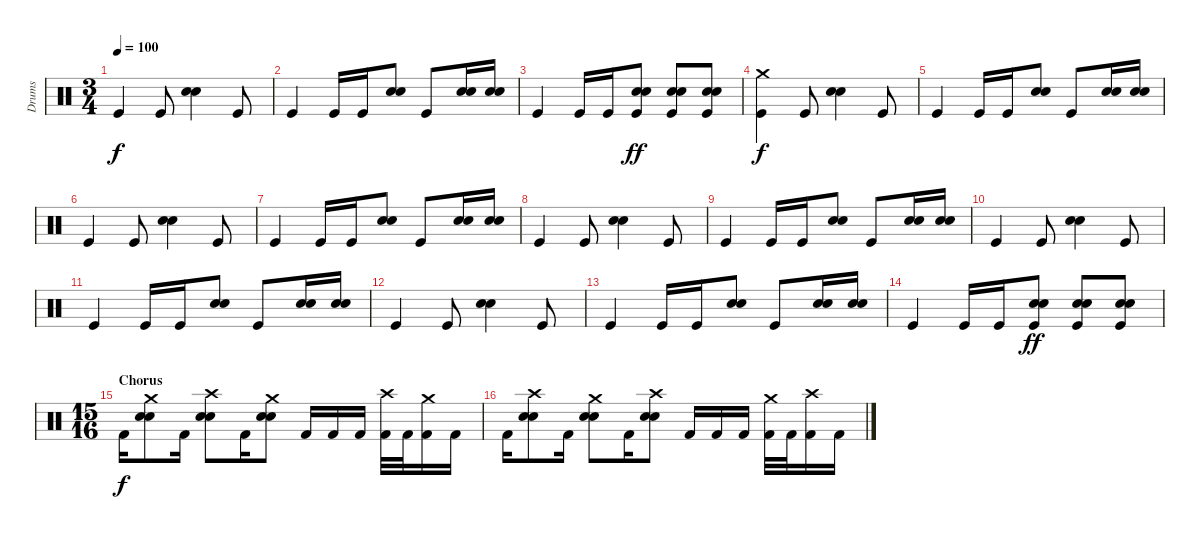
\track ("Drums" "Drums") {instrument percussion}
\staff {score}
\articulation defaults
\ts (3 4)
\tempo 100
\clef neutral
\ks c "Kick (hit)".4{dy f} "Kick (hit)".8
("Snare (hit) 2" "Electric Snare (hit)").4 "Kick (hit)".8 |
"Kick (hit)".4 "Kick (hit)".16 "Kick (hit)".16 ("Snare (hit) 2" "Electric Snare (hit)").8 "Kick (hit)".8 ("Snare (hit) 2" "Electric Snare (hit)").16 ("Snare (hit) 2" "Electric Snare (hit)").16 |
"Kick (hit)".4 "Kick (hit)".16 "Kick (hit)".16 ("Snare (hit) 2" "Electric Snare (hit)" "Kick (hit)").8{dy ff} ("Snare (hit) 2" "Electric Snare (hit)" "Kick (hit)").8 ("Snare (hit) 2" "Electric Snare (hit)" "Kick (hit)").8 |
("Crash medium (hit)" "Kick (hit)").4{dy f} "Kick (hit)".8 ("Snare (hit) 2" "Electric Snare (hit)").4 "Kick (hit)".8 |
"Kick (hit)".4 "Kick (hit)".16 "Kick (hit)".16 ("Snare (hit) 2" "Electric Snare (hit)").8 "Kick (hit)".8 ("Snare (hit) 2" "Electric Snare (hit)").16 ("Snare (hit) 2" "Electric Snare (hit)").16 |
"Kick (hit)".4 "Kick (hit)".8 ("Snare (hit) 2" "Electric Snare (hit)").4 "Kick (hit)".8 |
"Kick (hit)".4 "Kick (hit)".16 "Kick (hit)".16 ("Snare (hit) 2" "Electric Snare (hit)").8 "Kick (hit)".8 ("Snare (hit) 2" "Electric Snare (hit)").16 ("Snare (hit) 2" "Electric Snare (hit)").16 |
"Kick (hit)".4 "Kick (hit)".8 ("Snare (hit) 2" "Electric Snare (hit)").4 "Kick (hit)".8 |
"Kick (hit)".4 "Kick (hit)".16 "Kick (hit)".16 ("Snare (hit) 2" "Electric Snare (hit)").8 "Kick (hit)".8 ("Snare (hit) 2" "Electric Snare (hit)").16 ("Snare (hit) 2" "Electric Snare (hit)").16 |
"Kick (hit)".4 "Kick (hit)".8 ("Snare (hit) 2" "Electric Snare (hit)").4 "Kick (hit)".8 |
"Kick (hit)".4 "Kick (hit)".16 "Kick (hit)".16 ("Snare (hit) 2" "Electric Snare (hit)").8 "Kick (hit)".8 ("Snare (hit) 2" "Electric Snare (hit)").16 ("Snare (hit) 2" "Electric Snare (hit)").16 |
"Kick (hit)".4 "Kick (hit)".8 ("Snare (hit) 2" "Electric Snare (hit)").4 "Kick (hit)".8 |
"Kick (hit)".4 "Kick (hit)".16 "Kick (hit)".16 ("Snare (hit) 2" "Electric Snare (hit)").8 "Kick (hit)".8 ("Snare (hit) 2" "Electric Snare (hit)").16 ("Snare (hit) 2" "Electric Snare (hit)").16 |
"Kick (hit)".4 "Kick (hit)".16 "Kick (hit)".16 ("Snare (hit) 2" "Electric Snare (hit)" "Kick (hit)").8{dy ff} ("Snare (hit) 2" "Electric Snare (hit)" "Kick (hit)").8 ("Snare (hit) 2" "Electric Snare (hit)" "Kick (hit)").8 |
\ts (15 16)
\section ("" "Chorus")
"Kick (hit) 2".16{dy f} ("Crash medium (hit)" "Snare (hit) 2" "Electric Snare (hit)").8 "Kick (hit) 2".16 ("Crash high (hit)" "Snare (hit) 2" "Electric Snare (hit)").8 "Kick (hit) 2".16 ("Crash medium (hit)" "Snare (hit) 2" "Electric Snare (hit)").8 "Kick (hit) 2".16 "Kick (hit) 2".16 "Kick (hit) 2".16 ("Crash high (hit)" "Kick (hit) 2").32 "Kick (hit) 2".32 ("Crash medium (hit)" "Kick (hit) 2").16 "Kick (hit) 2".16 |
"Kick (hit) 2".16 ("Crash high (hit)" "Snare (hit) 2" "Electric Snare (hit)").8 "Kick (hit) 2".16 ("Crash medium (hit)" "Snare (hit) 2" "Electric Snare (hit)").8 "Kick (hit) 2".16 ("Crash high (hit)" "Snare (hit) 2" "Electric Snare (hit)").8 "Kick (hit) 2".16 "Kick (hit) 2".16 "Kick (hit) 2".16 ("Crash medium (hit)" "Kick (hit) 2").32 "Kick (hit) 2".32 ("Crash high (hit)" "Kick (hit) 2").16 "Kick (hit) 2".16
